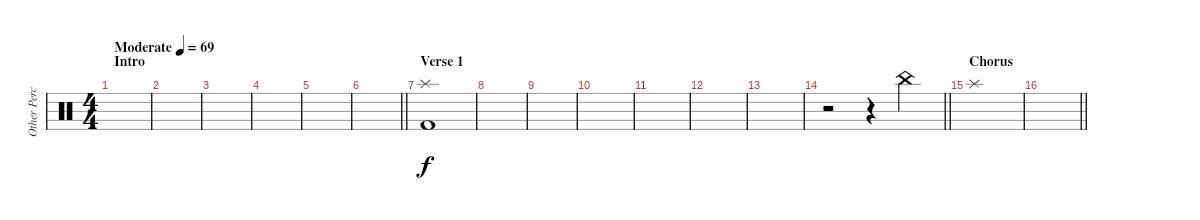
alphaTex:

\track ("Other Percussion" "Other Perc") {instrument percussion}
\staff {score}
\articulation defaults
\ts (4 4)
\section ("" "Intro")
\tempo (69 "Moderate")
\clef neutral
\ks aminor
|
|
|
|
|
\barLineRight lightlight
|
\section ("" "Verse 1")
("Splash (hit)" "Kick (hit) 2").1 |
|
|
|
|
|
|
\barLineRight lightlight
r.2 r.4 "China (hit)".4 |
\section ("" "Chorus")
"Splash (hit)".1 |
\barLineRight lightlight
